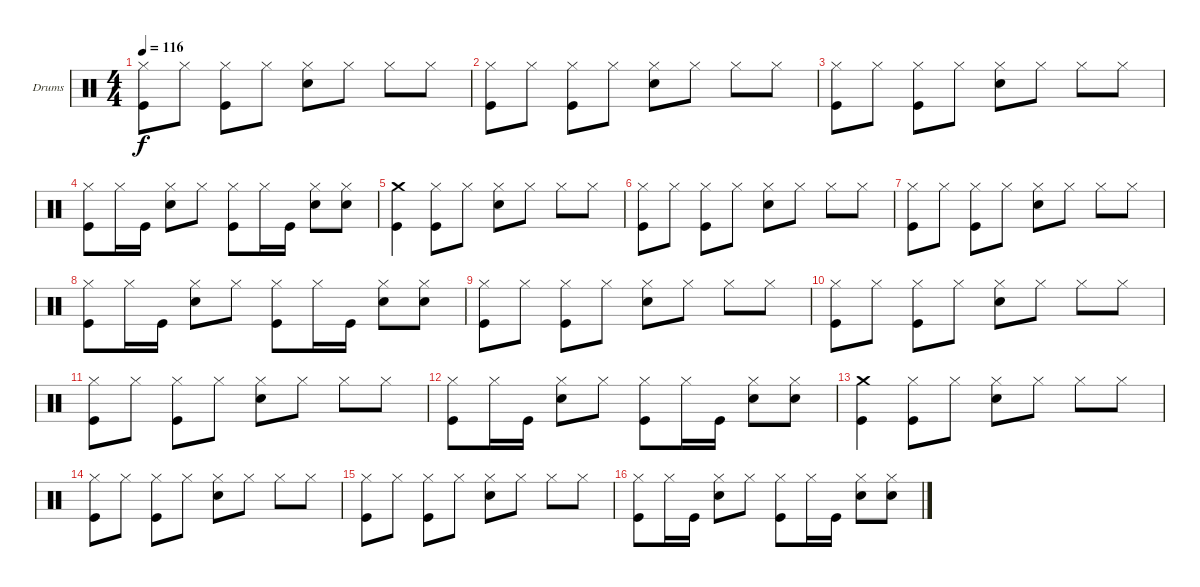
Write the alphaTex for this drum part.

\bracketExtendMode groupsimilarinstruments
\firstSystemTrackNameOrientation horizontal
\otherSystemsTrackNameOrientation horizontal
\track ("Drumkit" "Drums") {instrument percussion}
\staff {score}
\articulation defaults
\ts (4 4)
\tempo 116
\clef neutral
\ks c
("Kick (hit)" "Hi-Hat (closed)").8{dy f} "Hi-Hat (closed)".8 ("Kick (hit)" "Hi-Hat (closed)").8 "Hi-Hat (closed)".8 ("Snare (hit) 2" "Hi-Hat (closed)").8 "Hi-Hat (closed)".8 "Hi-Hat (closed)".8 "Hi-Hat (closed)".8 |
("Kick (hit)" "Hi-Hat (closed)").8 "Hi-Hat (closed)".8 ("Kick (hit)" "Hi-Hat (closed)").8 "Hi-Hat (closed)".8 ("Snare (hit) 2" "Hi-Hat (closed)").8 "Hi-Hat (closed)".8 "Hi-Hat (closed)".8 "Hi-Hat (closed)".8 |
("Kick (hit)" "Hi-Hat (closed)").8 "Hi-Hat (closed)".8 ("Kick (hit)" "Hi-Hat (closed)").8 "Hi-Hat (closed)".8 ("Snare (hit) 2" "Hi-Hat (closed)").8 "Hi-Hat (closed)".8 "Hi-Hat (closed)".8 "Hi-Hat (closed)".8 |
("Kick (hit)" "Hi-Hat (closed)").8 "Hi-Hat (closed)".16 "Kick (hit)".16 ("Snare (hit) 2" "Hi-Hat (closed)").8 "Hi-Hat (closed)".8 ("Kick (hit)" "Hi-Hat (closed)").8 "Hi-Hat (closed)".16 "Kick (hit)".16 ("Snare (hit) 2" "Hi-Hat (closed)").8 ("Snare (hit) 2" "Hi-Hat (closed)").8 |
("Kick (hit)" "Crash medium (hit)").4 ("Kick (hit)" "Hi-Hat (closed)").8 "Hi-Hat (closed)".8 ("Snare (hit) 2" "Hi-Hat (closed)").8 "Hi-Hat (closed)".8 "Hi-Hat (closed)".8 "Hi-Hat (closed)".8 |
("Kick (hit)" "Hi-Hat (closed)").8 "Hi-Hat (closed)".8 ("Kick (hit)" "Hi-Hat (closed)").8 "Hi-Hat (closed)".8 ("Snare (hit) 2" "Hi-Hat (closed)").8 "Hi-Hat (closed)".8 "Hi-Hat (closed)".8 "Hi-Hat (closed)".8 |
("Kick (hit)" "Hi-Hat (closed)").8 "Hi-Hat (closed)".8 ("Kick (hit)" "Hi-Hat (closed)").8 "Hi-Hat (closed)".8 ("Snare (hit) 2" "Hi-Hat (closed)").8 "Hi-Hat (closed)".8 "Hi-Hat (closed)".8 "Hi-Hat (closed)".8 |
("Kick (hit)" "Hi-Hat (closed)").8 "Hi-Hat (closed)".16 "Kick (hit)".16 ("Snare (hit) 2" "Hi-Hat (closed)").8 "Hi-Hat (closed)".8 ("Kick (hit)" "Hi-Hat (closed)").8 "Hi-Hat (closed)".16 "Kick (hit)".16 ("Snare (hit) 2" "Hi-Hat (closed)").8 ("Snare (hit) 2" "Hi-Hat (closed)").8 |
("Kick (hit)" "Hi-Hat (closed)").8 "Hi-Hat (closed)".8 ("Kick (hit)" "Hi-Hat (closed)").8 "Hi-Hat (closed)".8 ("Snare (hit) 2" "Hi-Hat (closed)").8 "Hi-Hat (closed)".8 "Hi-Hat (closed)".8 "Hi-Hat (closed)".8 |
("Kick (hit)" "Hi-Hat (closed)").8 "Hi-Hat (closed)".8 ("Kick (hit)" "Hi-Hat (closed)").8 "Hi-Hat (closed)".8 ("Snare (hit) 2" "Hi-Hat (closed)").8 "Hi-Hat (closed)".8 "Hi-Hat (closed)".8 "Hi-Hat (closed)".8 |
("Kick (hit)" "Hi-Hat (closed)").8 "Hi-Hat (closed)".8 ("Kick (hit)" "Hi-Hat (closed)").8 "Hi-Hat (closed)".8 ("Snare (hit) 2" "Hi-Hat (closed)").8 "Hi-Hat (closed)".8 "Hi-Hat (closed)".8 "Hi-Hat (closed)".8 |
("Kick (hit)" "Hi-Hat (closed)").8 "Hi-Hat (closed)".16 "Kick (hit)".16 ("Snare (hit) 2" "Hi-Hat (closed)").8 "Hi-Hat (closed)".8 ("Kick (hit)" "Hi-Hat (closed)").8 "Hi-Hat (closed)".16 "Kick (hit)".16 ("Snare (hit) 2" "Hi-Hat (closed)").8 ("Snare (hit) 2" "Hi-Hat (closed)").8 |
("Kick (hit)" "Crash medium (hit)").4 ("Kick (hit)" "Hi-Hat (closed)").8 "Hi-Hat (closed)".8 ("Snare (hit) 2" "Hi-Hat (closed)").8 "Hi-Hat (closed)".8 "Hi-Hat (closed)".8 "Hi-Hat (closed)".8 |
("Kick (hit)" "Hi-Hat (closed)").8 "Hi-Hat (closed)".8 ("Kick (hit)" "Hi-Hat (closed)").8 "Hi-Hat (closed)".8 ("Snare (hit) 2" "Hi-Hat (closed)").8 "Hi-Hat (closed)".8 "Hi-Hat (closed)".8 "Hi-Hat (closed)".8 |
("Kick (hit)" "Hi-Hat (closed)").8 "Hi-Hat (closed)".8 ("Kick (hit)" "Hi-Hat (closed)").8 "Hi-Hat (closed)".8 ("Snare (hit) 2" "Hi-Hat (closed)").8 "Hi-Hat (closed)".8 "Hi-Hat (closed)".8 "Hi-Hat (closed)".8 |
("Kick (hit)" "Hi-Hat (closed)").8 "Hi-Hat (closed)".16 "Kick (hit)".16 ("Snare (hit) 2" "Hi-Hat (closed)").8 "Hi-Hat (closed)".8 ("Kick (hit)" "Hi-Hat (closed)").8 "Hi-Hat (closed)".16 "Kick (hit)".16 ("Snare (hit) 2" "Hi-Hat (closed)").8 ("Snare (hit) 2" "Hi-Hat (closed)").8
